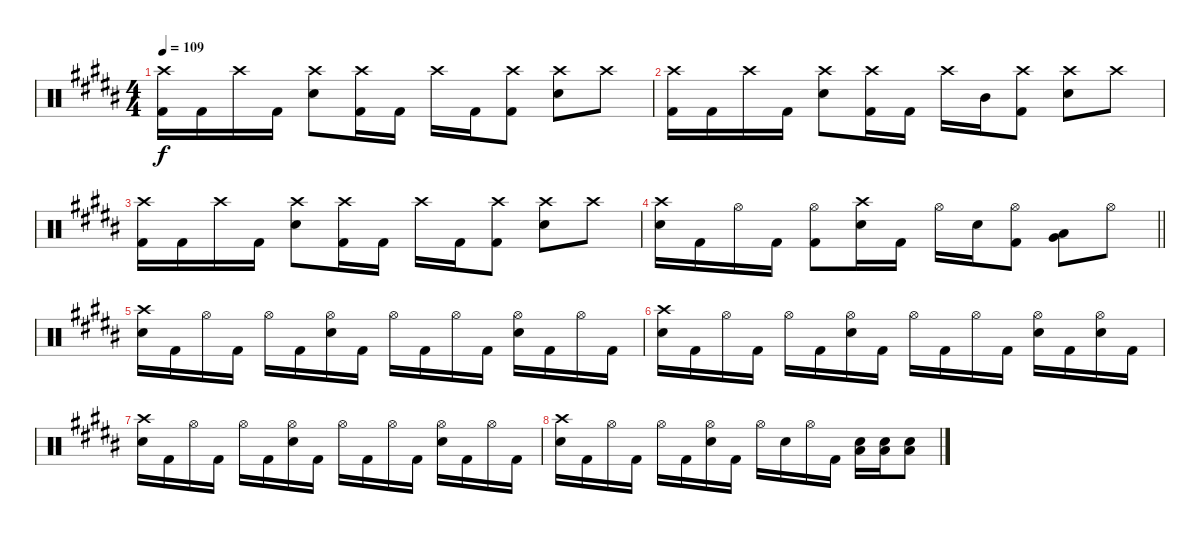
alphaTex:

\track "" {instrument percussion}
\staff {score}
\articulation defaults
\ts (4 4)
\tempo 109
\clef neutral
\ks g#minor
("Crash high (hit)" "Kick (hit) 2").16{dy f} "Kick (hit) 2".16 "Crash high (hit)".16 "Kick (hit) 2".16 ("Crash high (hit)" "Snare (hit) 2").8 ("Crash high (hit)" "Kick (hit) 2").16 "Kick (hit) 2".16 "Crash high (hit)".16 "Kick (hit) 2".16 ("Crash high (hit)" "Kick (hit) 2").8 ("Crash high (hit)" "Snare (hit) 2").8 "Crash high (hit)".8 |
("Crash high (hit)" "Kick (hit) 2").16 "Kick (hit) 2".16 "Crash high (hit)".16 "Kick (hit) 2".16 ("Crash high (hit)" "Snare (hit) 2").8 ("Crash high (hit)" "Kick (hit) 2").16 "Kick (hit) 2".16 "Crash high (hit)".16 "Mid Tom (hit)".16 ("Crash high (hit)" "Kick (hit) 2").8 ("Crash high (hit)" "Snare (hit) 2").8 "Crash high (hit)".8 |
("Crash high (hit)" "Kick (hit) 2").16 "Kick (hit) 2".16 "Crash high (hit)".16 "Kick (hit) 2".16 ("Crash high (hit)" "Snare (hit) 2").8 ("Crash high (hit)" "Kick (hit) 2").16 "Kick (hit) 2".16 "Crash high (hit)".16 "Kick (hit) 2".16 ("Crash high (hit)" "Kick (hit) 2").8 ("Crash high (hit)" "Snare (hit) 2").8 "Crash high (hit)".8 |
\barLineRight lightlight
("Crash high (hit)" "Snare (hit) 2").16 "Kick (hit) 2".16 "Hi-Hat (open)".16 "Kick (hit) 2".16 ("Hi-Hat (open)" "Kick (hit) 2").8 ("Crash high (hit)" "Snare (hit) 2").16 "Kick (hit) 2".16 "Hi-Hat (open)".16 "Snare (hit) 2".16 ("Hi-Hat (open)" "Kick (hit) 2").8 ("Low Tom (hit)" "Very Low Tom (hit)").8 "Hi-Hat (open)".8 |
("Crash high (hit)" "Snare (hit) 2").16 "Kick (hit) 2".16 "Hi-Hat (open)".16 "Kick (hit) 2".16 "Hi-Hat (open)".16 "Kick (hit) 2".16 ("Hi-Hat (open)" "Snare (hit) 2").16 "Kick (hit) 2".16 "Hi-Hat (open)".16 "Kick (hit) 2".16 "Hi-Hat (open)".16 "Kick (hit) 2".16 ("Hi-Hat (open)" "Snare (hit) 2").16 "Kick (hit) 2".16 "Hi-Hat (open)".16 "Kick (hit) 2".16 |
("Crash high (hit)" "Snare (hit) 2").16 "Kick (hit) 2".16 "Hi-Hat (open)".16 "Kick (hit) 2".16 "Hi-Hat (open)".16 "Kick (hit) 2".16 ("Hi-Hat (open)" "Snare (hit) 2").16 "Kick (hit) 2".16 "Hi-Hat (open)".16 "Kick (hit) 2".16 "Hi-Hat (open)".16 "Kick (hit) 2".16 ("Hi-Hat (open)" "Snare (hit) 2").16 "Kick (hit) 2".16 ("Hi-Hat (open)" "Snare (hit) 2").16 "Kick (hit) 2".16 |
("Crash high (hit)" "Snare (hit) 2").16 "Kick (hit) 2".16 "Hi-Hat (open)".16 "Kick (hit) 2".16 "Hi-Hat (open)".16 "Kick (hit) 2".16 ("Hi-Hat (open)" "Snare (hit) 2").16 "Kick (hit) 2".16 "Hi-Hat (open)".16 "Kick (hit) 2".16 "Hi-Hat (open)".16 "Kick (hit) 2".16 ("Hi-Hat (open)" "Snare (hit) 2").16 "Kick (hit) 2".16 "Hi-Hat (open)".16 "Kick (hit) 2".16 |
("Crash high (hit)" "Snare (hit) 2").16 "Kick (hit) 2".16 "Hi-Hat (open)".16 "Kick (hit) 2".16 "Hi-Hat (open)".16 "Kick (hit) 2".16 ("Hi-Hat (open)" "Snare (hit) 2").16 "Kick (hit) 2".16 "Hi-Hat (open)".16 "Snare (hit) 2".16 "Hi-Hat (open)".16 "Kick (hit) 2".16 ("Low Floor Tom (hit)" "Snare (hit) 2").16 ("Low Floor Tom (hit)" "Snare (hit) 2").16 ("Low Floor Tom (hit)" "Snare (hit) 2").8
